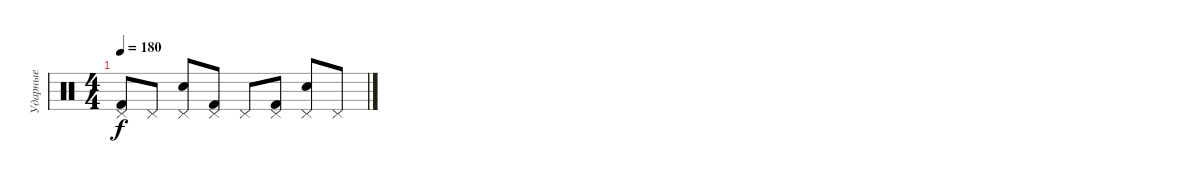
\track ("Ударные" "Ударные") {instrument percussion}
\staff {score}
\articulation defaults
\ts (4 4)
\tempo 180
\clef neutral
\ks c
("Pedal Hi-Hat (hit)" "Kick (hit) 2").8{dy f} "Pedal Hi-Hat (hit)".8 ("Pedal Hi-Hat (hit)" "Electric Snare (hit)").8 ("Pedal Hi-Hat (hit)" "Kick (hit) 2").8 "Pedal Hi-Hat (hit)".8 ("Pedal Hi-Hat (hit)" "Kick (hit) 2").8 ("Pedal Hi-Hat (hit)" "Electric Snare (hit)").8 "Pedal Hi-Hat (hit)".8
